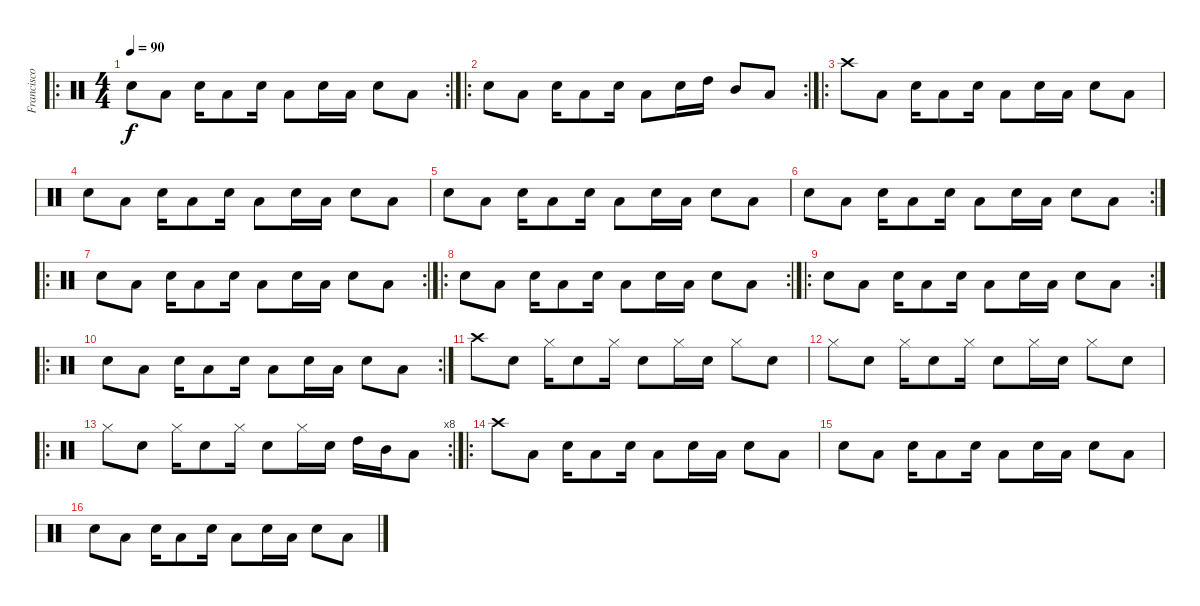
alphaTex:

\track ("Francisco (batería)" "Francisco ") {instrument percussion}
\staff {score}
\articulation defaults
\ro
\rc 2
\ts (4 4)
\tempo 90
\clef neutral
\ks c "Electric Snare (hit)".8{dy f} "Low Floor Tom (hit)".8 "Hand Clap (hit)".16 "Low Floor Tom (hit)".8 "Electric Snare (hit)".16 "Low Floor Tom (hit)".8 "Hand Clap (hit)".16 "Low Floor Tom (hit)".16 "Electric Snare (hit)".8 "Low Floor Tom (hit)".8
|
\ro
\rc 2 "Electric Snare (hit)".8 "Low Floor Tom (hit)".8 "Hand Clap (hit)".16 "Low Floor Tom (hit)".8 "Electric Snare (hit)".16 "Low Floor Tom (hit)".8 "Hand Clap (hit)".16 "High Tom (hit)".16 "Mid Tom (hit)".8 "Low Tom (hit)".8
|
\ro "Crash high (hit)".8 "Low Floor Tom (hit)".8 "Hand Clap (hit)".16 "Low Floor Tom (hit)".8 "Electric Snare (hit)".16 "Low Floor Tom (hit)".8 "Hand Clap (hit)".16 "Low Floor Tom (hit)".16 "Electric Snare (hit)".8 "Low Floor Tom (hit)".8
|
"Electric Snare (hit)".8 "Low Floor Tom (hit)".8 "Hand Clap (hit)".16 "Low Floor Tom (hit)".8 "Electric Snare (hit)".16 "Low Floor Tom (hit)".8 "Hand Clap (hit)".16 "Low Floor Tom (hit)".16 "Electric Snare (hit)".8 "Low Floor Tom (hit)".8 |
"Electric Snare (hit)".8 "Low Floor Tom (hit)".8 "Hand Clap (hit)".16 "Low Floor Tom (hit)".8 "Electric Snare (hit)".16 "Low Floor Tom (hit)".8 "Hand Clap (hit)".16 "Low Floor Tom (hit)".16 "Electric Snare (hit)".8 "Low Floor Tom (hit)".8 |
\rc 2 "Electric Snare (hit)".8 "Low Floor Tom (hit)".8 "Hand Clap (hit)".16 "Low Floor Tom (hit)".8 "Electric Snare (hit)".16 "Low Floor Tom (hit)".8 "Hand Clap (hit)".16 "Low Floor Tom (hit)".16 "Electric Snare (hit)".8 "Low Floor Tom (hit)".8
|
\ro
\rc 2 "Electric Snare (hit)".8 "Low Floor Tom (hit)".8 "Hand Clap (hit)".16 "Low Floor Tom (hit)".8 "Electric Snare (hit)".16 "Low Floor Tom (hit)".8 "Hand Clap (hit)".16 "Low Floor Tom (hit)".16 "Electric Snare (hit)".8 "Low Floor Tom (hit)".8
|
\ro
\rc 2 "Electric Snare (hit)".8 "Low Floor Tom (hit)".8 "Hand Clap (hit)".16 "Low Floor Tom (hit)".8 "Electric Snare (hit)".16 "Low Floor Tom (hit)".8 "Hand Clap (hit)".16 "Low Floor Tom (hit)".16 "Electric Snare (hit)".8 "Low Floor Tom (hit)".8
|
\ro
\rc 2 "Electric Snare (hit)".8 "Low Floor Tom (hit)".8 "Hand Clap (hit)".16 "Low Floor Tom (hit)".8 "Electric Snare (hit)".16 "Low Floor Tom (hit)".8 "Hand Clap (hit)".16 "Low Floor Tom (hit)".16 "Electric Snare (hit)".8 "Low Floor Tom (hit)".8
|
\ro
\rc 2 "Electric Snare (hit)".8 "Low Floor Tom (hit)".8 "Hand Clap (hit)".16 "Low Floor Tom (hit)".8 "Electric Snare (hit)".16 "Low Floor Tom (hit)".8 "Hand Clap (hit)".16 "Low Floor Tom (hit)".16 "Electric Snare (hit)".8 "Low Floor Tom (hit)".8
|
"Crash high (hit)".8 "Hand Clap (hit)".8 "Hi-Hat (closed)".16 "Hand Clap (hit)".8 "Hi-Hat (closed)".16 "Hand Clap (hit)".8 "Hi-Hat (closed)".16 "Hand Clap (hit)".16 "Hi-Hat (closed)".8 "Hand Clap (hit)".8 |
"Hi-Hat (closed)".8 "Hand Clap (hit)".8 "Hi-Hat (closed)".16 "Hand Clap (hit)".8 "Hi-Hat (closed)".16 "Hand Clap (hit)".8 "Hi-Hat (closed)".16 "Hand Clap (hit)".16 "Hi-Hat (closed)".8 "Hand Clap (hit)".8 |
\ro
\rc 8 "Hi-Hat (closed)".8 "Hand Clap (hit)".8 "Hi-Hat (closed)".16 "Hand Clap (hit)".8 "Hi-Hat (closed)".16 "Hand Clap (hit)".8 "Hi-Hat (closed)".16 "Hand Clap (hit)".16 "High Tom (hit)".16 "Mid Tom (hit)".16 "Low Tom (hit)".8
|
\ro "Crash high (hit)".8 "Low Floor Tom (hit)".8 "Hand Clap (hit)".16 "Low Floor Tom (hit)".8 "Electric Snare (hit)".16 "Low Floor Tom (hit)".8 "Hand Clap (hit)".16 "Low Floor Tom (hit)".16 "Electric Snare (hit)".8 "Low Floor Tom (hit)".8
|
"Electric Snare (hit)".8 "Low Floor Tom (hit)".8 "Hand Clap (hit)".16 "Low Floor Tom (hit)".8 "Electric Snare (hit)".16 "Low Floor Tom (hit)".8 "Hand Clap (hit)".16 "Low Floor Tom (hit)".16 "Electric Snare (hit)".8 "Low Floor Tom (hit)".8 |
"Electric Snare (hit)".8 "Low Floor Tom (hit)".8 "Hand Clap (hit)".16 "Low Floor Tom (hit)".8 "Electric Snare (hit)".16 "Low Floor Tom (hit)".8 "Hand Clap (hit)".16 "Low Floor Tom (hit)".16 "Electric Snare (hit)".8 "Low Floor Tom (hit)".8
